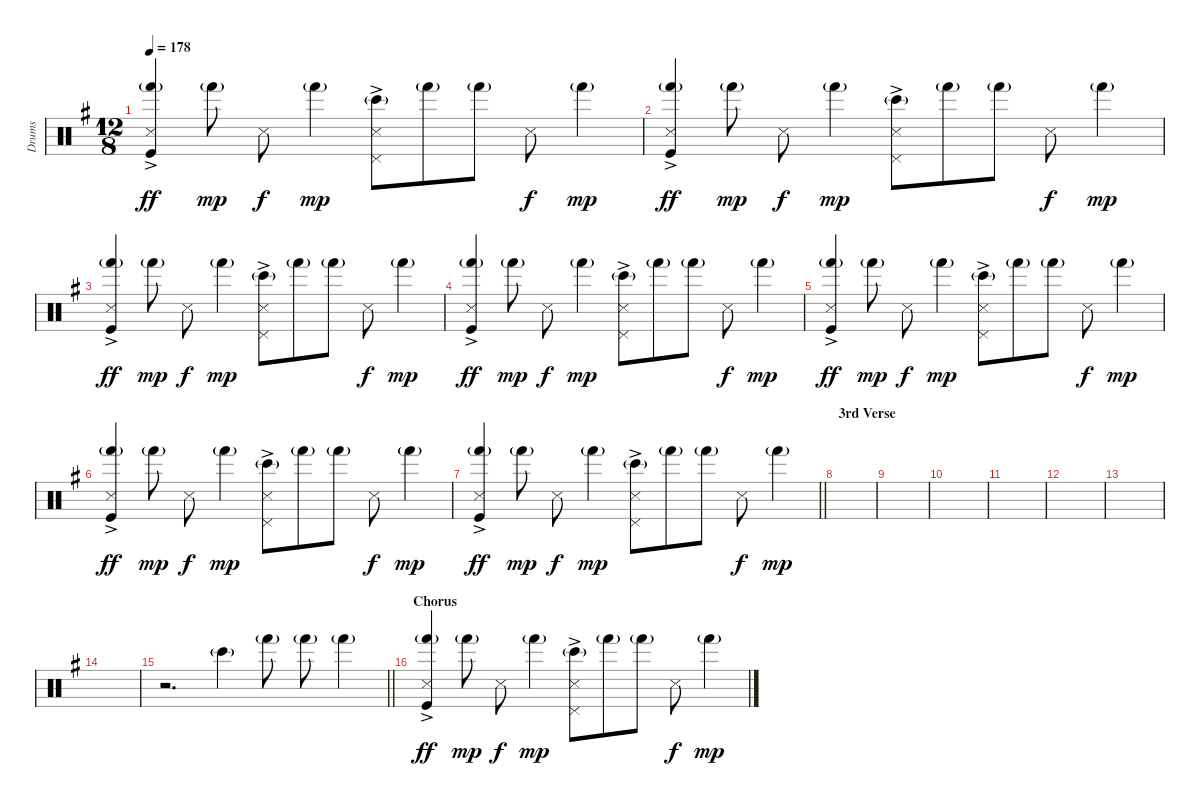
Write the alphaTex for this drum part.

\track ("Drums" "Drums") {instrument percussion}
\staff {score}
\articulation defaults
\ts (12 8)
\tempo 178
\clef neutral
\ks g
("Snare (side stick) 3" "Hand (hit)"{g} "Kick (hit)"{ac}).4{dy ff} "Hand (hit)"{g}.8{dy mp} "Snare (side stick) 3".8{dy f} "Hand (hit)"{g}.4{dy mp} ("Pedal Hi-Hat (hit)"{ac} "Snare (side stick) 3" "Bongo High (hit)"{g}).8 "Hand (hit)"{g}.8 "Hand (hit)"{g}.8 "Snare (side stick) 3".8{dy f} "Hand (hit)"{g}.4{dy mp} |
("Snare (side stick) 3" "Hand (hit)"{g} "Kick (hit)"{ac}).4{dy ff} "Hand (hit)"{g}.8{dy mp} "Snare (side stick) 3".8{dy f} "Hand (hit)"{g}.4{dy mp} ("Pedal Hi-Hat (hit)"{ac} "Snare (side stick) 3" "Bongo High (hit)"{g}).8 "Hand (hit)"{g}.8 "Hand (hit)"{g}.8 "Snare (side stick) 3".8{dy f} "Hand (hit)"{g}.4{dy mp} |
("Snare (side stick) 3" "Hand (hit)"{g} "Kick (hit)"{ac}).4{dy ff} "Hand (hit)"{g}.8{dy mp} "Snare (side stick) 3".8{dy f} "Hand (hit)"{g}.4{dy mp} ("Pedal Hi-Hat (hit)"{ac} "Snare (side stick) 3" "Bongo High (hit)"{g}).8 "Hand (hit)"{g}.8 "Hand (hit)"{g}.8 "Snare (side stick) 3".8{dy f} "Hand (hit)"{g}.4{dy mp} |
("Snare (side stick) 3" "Hand (hit)"{g} "Kick (hit)"{ac}).4{dy ff} "Hand (hit)"{g}.8{dy mp} "Snare (side stick) 3".8{dy f} "Hand (hit)"{g}.4{dy mp} ("Pedal Hi-Hat (hit)"{ac} "Snare (side stick) 3" "Bongo High (hit)"{g}).8 "Hand (hit)"{g}.8 "Hand (hit)"{g}.8 "Snare (side stick) 3".8{dy f} "Hand (hit)"{g}.4{dy mp} |
("Snare (side stick) 3" "Hand (hit)"{g} "Kick (hit)"{ac}).4{dy ff} "Hand (hit)"{g}.8{dy mp} "Snare (side stick) 3".8{dy f} "Hand (hit)"{g}.4{dy mp} ("Pedal Hi-Hat (hit)"{ac} "Snare (side stick) 3" "Bongo High (hit)"{g}).8 "Hand (hit)"{g}.8 "Hand (hit)"{g}.8 "Snare (side stick) 3".8{dy f} "Hand (hit)"{g}.4{dy mp} |
("Snare (side stick) 3" "Hand (hit)"{g} "Kick (hit)"{ac}).4{dy ff} "Hand (hit)"{g}.8{dy mp} "Snare (side stick) 3".8{dy f} "Hand (hit)"{g}.4{dy mp} ("Pedal Hi-Hat (hit)"{ac} "Snare (side stick) 3" "Bongo High (hit)"{g}).8 "Hand (hit)"{g}.8 "Hand (hit)"{g}.8 "Snare (side stick) 3".8{dy f} "Hand (hit)"{g}.4{dy mp} |
\barLineRight lightlight
("Snare (side stick) 3" "Hand (hit)"{g} "Kick (hit)"{ac}).4{dy ff} "Hand (hit)"{g}.8{dy mp} "Snare (side stick) 3".8{dy f} "Hand (hit)"{g}.4{dy mp} ("Pedal Hi-Hat (hit)"{ac} "Snare (side stick) 3" "Bongo High (hit)"{g}).8 "Hand (hit)"{g}.8 "Hand (hit)"{g}.8 "Snare (side stick) 3".8{dy f} "Hand (hit)"{g}.4{dy mp} |
\section ("" "3rd Verse")
|
|
|
|
|
|
|
\barLineRight lightlight
r.2{d} "Bongo High (hit)"{g}.4 "Hand (hit)"{g}.8 "Hand (hit)"{g}.8 "Hand (hit)"{g}.4 |
\section ("" "Chorus")
("Snare (side stick) 3" "Hand (hit)"{g} "Kick (hit)"{ac}).4{dy ff} "Hand (hit)"{g}.8{dy mp} "Snare (side stick) 3".8{dy f} "Hand (hit)"{g}.4{dy mp} ("Pedal Hi-Hat (hit)"{ac} "Snare (side stick) 3" "Bongo High (hit)"{g}).8 "Hand (hit)"{g}.8 "Hand (hit)"{g}.8 "Snare (side stick) 3".8{dy f} "Hand (hit)"{g}.4{dy mp}
